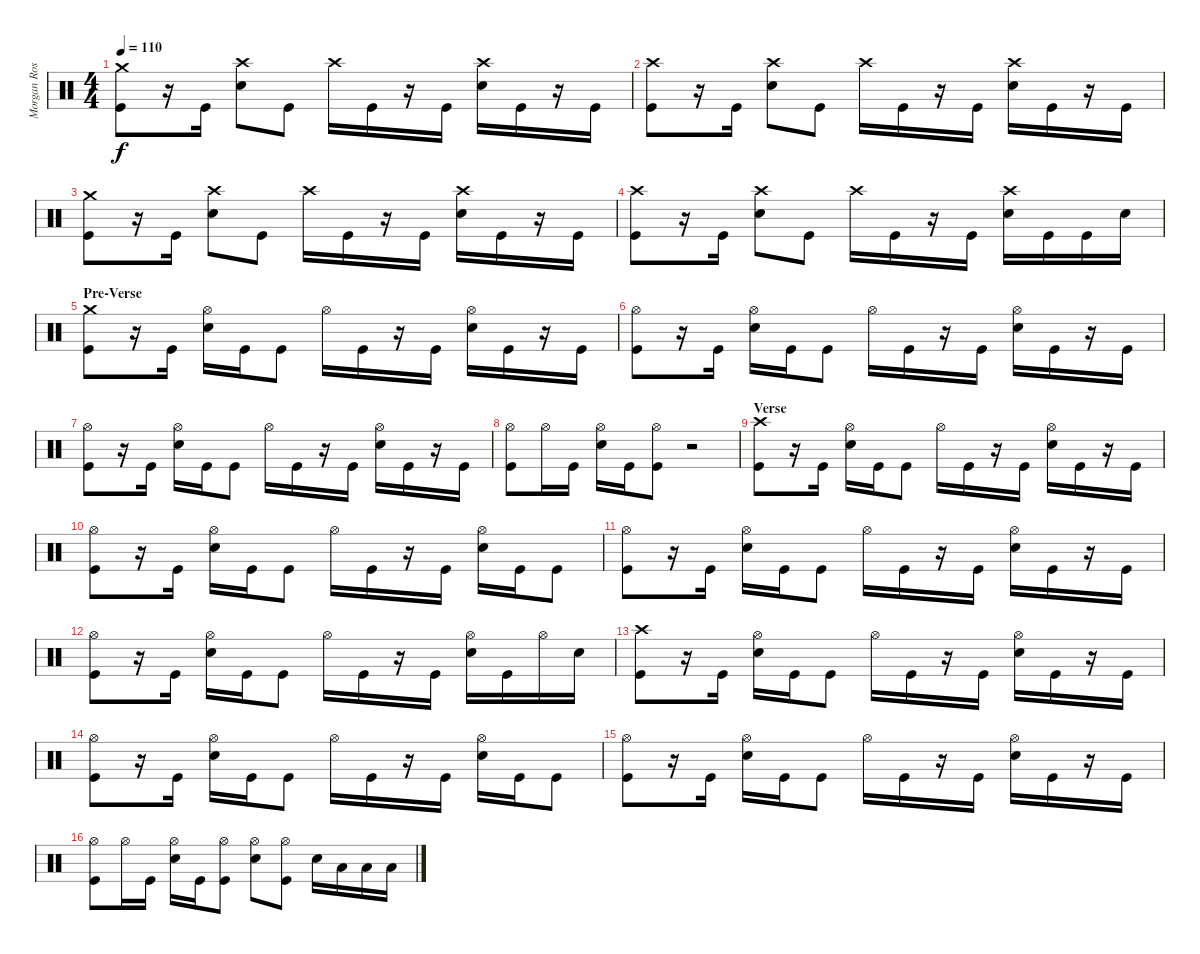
\track ("Morgan Rose" "Morgan Ros") {instrument percussion}
\staff {score}
\articulation defaults
\ts (4 4)
\tempo 110
\clef neutral
\ks c
("Crash medium (hit)" "Kick (hit)").8{dy f} r.16 "Kick (hit)".16 ("Crash high (hit)" "Snare (hit) 2").8 "Kick (hit)".8 "Crash high (hit)".16 "Kick (hit)".16 r.16 "Kick (hit)".16 ("Crash high (hit)" "Snare (hit) 2").16 "Kick (hit)".16 r.16 "Kick (hit)".16 |
("Crash high (hit)" "Kick (hit)").8 r.16 "Kick (hit)".16 ("Crash high (hit)" "Snare (hit) 2").8 "Kick (hit)".8 "Crash high (hit)".16 "Kick (hit)".16 r.16 "Kick (hit)".16 ("Crash high (hit)" "Snare (hit) 2").16 "Kick (hit)".16 r.16 "Kick (hit)".16 |
("Crash medium (hit)" "Kick (hit)").8 r.16 "Kick (hit)".16 ("Crash high (hit)" "Snare (hit) 2").8 "Kick (hit)".8 "Crash high (hit)".16 "Kick (hit)".16 r.16 "Kick (hit)".16 ("Crash high (hit)" "Snare (hit) 2").16 "Kick (hit)".16 r.16 "Kick (hit)".16 |
("Crash high (hit)" "Kick (hit)").8 r.16 "Kick (hit)".16 ("Crash high (hit)" "Snare (hit) 2").8 "Kick (hit)".8 "Crash high (hit)".16 "Kick (hit)".16 r.16 "Kick (hit)".16 ("Crash high (hit)" "Snare (hit) 2").16 "Kick (hit)".16 "Kick (hit)".16 "Snare (hit) 2".16 |
\section ("" "Pre-Verse")
("Crash medium (hit)" "Kick (hit)").8 r.16 "Kick (hit)".16 ("Hi-Hat (open)" "Snare (hit) 2").16 "Kick (hit)".16 "Kick (hit)".8 "Hi-Hat (open)".16 "Kick (hit)".16 r.16 "Kick (hit)".16 ("Hi-Hat (open)" "Snare (hit) 2").16 "Kick (hit)".16 r.16 "Kick (hit)".16 |
("Hi-Hat (open)" "Kick (hit)").8 r.16 "Kick (hit)".16 ("Hi-Hat (open)" "Snare (hit) 2").16 "Kick (hit)".16 "Kick (hit)".8 "Hi-Hat (open)".16 "Kick (hit)".16 r.16 "Kick (hit)".16 ("Hi-Hat (open)" "Snare (hit) 2").16 "Kick (hit)".16 r.16 "Kick (hit)".16 |
("Hi-Hat (open)" "Kick (hit)").8 r.16 "Kick (hit)".16 ("Hi-Hat (open)" "Snare (hit) 2").16 "Kick (hit)".16 "Kick (hit)".8 "Hi-Hat (open)".16 "Kick (hit)".16 r.16 "Kick (hit)".16 ("Hi-Hat (open)" "Snare (hit) 2").16 "Kick (hit)".16 r.16 "Kick (hit)".16 |
("Hi-Hat (open)" "Kick (hit)").8 "Hi-Hat (open)".16 "Kick (hit)".16 ("Hi-Hat (open)" "Snare (hit) 2").16 "Kick (hit)".16 ("Hi-Hat (open)" "Kick (hit)").8 r.2 |
\section ("" "Verse")
("Crash high (hit)" "Kick (hit)").8 r.16 "Kick (hit)".16 ("Hi-Hat (open)" "Snare (hit) 2").16 "Kick (hit)".16 "Kick (hit)".8 "Hi-Hat (open)".16 "Kick (hit)".16 r.16 "Kick (hit)".16 ("Hi-Hat (open)" "Snare (hit) 2").16 "Kick (hit)".16 r.16 "Kick (hit)".16 |
("Hi-Hat (open)" "Kick (hit)").8 r.16 "Kick (hit)".16 ("Hi-Hat (open)" "Snare (hit) 2").16 "Kick (hit)".16 "Kick (hit)".8 "Hi-Hat (open)".16 "Kick (hit)".16 r.16 "Kick (hit)".16 ("Hi-Hat (open)" "Snare (hit) 2").16 "Kick (hit)".16 "Kick (hit)".8 |
("Hi-Hat (open)" "Kick (hit)").8 r.16 "Kick (hit)".16 ("Hi-Hat (open)" "Snare (hit) 2").16 "Kick (hit)".16 "Kick (hit)".8 "Hi-Hat (open)".16 "Kick (hit)".16 r.16 "Kick (hit)".16 ("Hi-Hat (open)" "Snare (hit) 2").16 "Kick (hit)".16 r.16 "Kick (hit)".16 |
("Hi-Hat (open)" "Kick (hit)").8 r.16 "Kick (hit)".16 ("Hi-Hat (open)" "Snare (hit) 2").16 "Kick (hit)".16 "Kick (hit)".8 "Hi-Hat (open)".16 "Kick (hit)".16 r.16 "Kick (hit)".16 ("Hi-Hat (open)" "Snare (hit) 2").16 "Kick (hit)".16 "Hi-Hat (open)".16 "Snare (hit) 2".16 |
("Crash high (hit)" "Kick (hit)").8 r.16 "Kick (hit)".16 ("Hi-Hat (open)" "Snare (hit) 2").16 "Kick (hit)".16 "Kick (hit)".8 "Hi-Hat (open)".16 "Kick (hit)".16 r.16 "Kick (hit)".16 ("Hi-Hat (open)" "Snare (hit) 2").16 "Kick (hit)".16 r.16 "Kick (hit)".16 |
("Hi-Hat (open)" "Kick (hit)").8 r.16 "Kick (hit)".16 ("Hi-Hat (open)" "Snare (hit) 2").16 "Kick (hit)".16 "Kick (hit)".8 "Hi-Hat (open)".16 "Kick (hit)".16 r.16 "Kick (hit)".16 ("Hi-Hat (open)" "Snare (hit) 2").16 "Kick (hit)".16 "Kick (hit)".8 |
("Hi-Hat (open)" "Kick (hit)").8 r.16 "Kick (hit)".16 ("Hi-Hat (open)" "Snare (hit) 2").16 "Kick (hit)".16 "Kick (hit)".8 "Hi-Hat (open)".16 "Kick (hit)".16 r.16 "Kick (hit)".16 ("Hi-Hat (open)" "Snare (hit) 2").16 "Kick (hit)".16 r.16 "Kick (hit)".16 |
("Hi-Hat (open)" "Kick (hit)").8 "Hi-Hat (open)".16 "Kick (hit)".16 ("Hi-Hat (open)" "Snare (hit) 2").16 "Kick (hit)".16 ("Hi-Hat (open)" "Kick (hit)").8 ("Hi-Hat (open)" "Snare (hit) 2").8 ("Hi-Hat (open)" "Kick (hit)").8 "Snare (hit) 2".16 "Low Tom (hit)".16 "Low Tom (hit)".16 "Low Floor Tom (hit)".16
